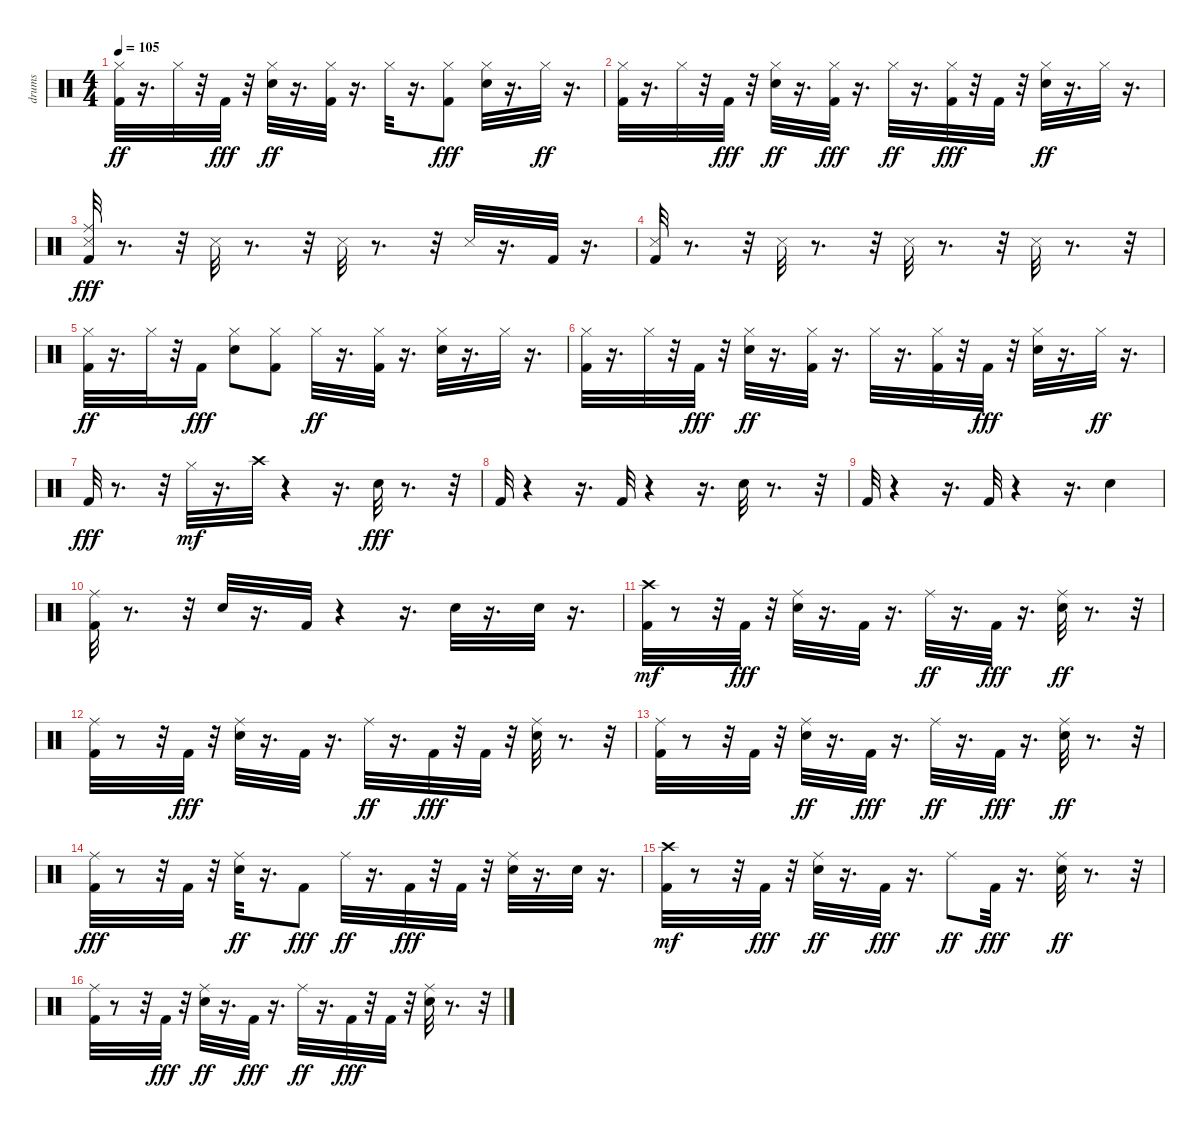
\track ("drums" "drums") {instrument percussion}
\staff {score}
\articulation defaults
\ts (4 4)
\tempo 105
\clef neutral
\ks c
("Kick (hit) 2" "Hi-Hat (closed)").32{dy ff} r.16{d} "Hi-Hat (closed)".32 r.32 "Kick (hit) 2".32{dy fff} r.32 ("Electric Snare (hit)" "Hi-Hat (closed)").32{dy ff} r.16{d} ("Kick (hit) 2" "Hi-Hat (closed)").32 r.16{d} "Hi-Hat (closed)".32 r.16{d} ("Hi-Hat (closed)" "Kick (hit) 2").8{dy fff} ("Hi-Hat (closed)" "Electric Snare (hit)").32 r.16{d} "Hi-Hat (closed)".32{dy ff} r.16{d} |
("Kick (hit) 2" "Hi-Hat (closed)").32 r.16{d} "Hi-Hat (closed)".32 r.32 "Kick (hit) 2".32{dy fff} r.32 ("Electric Snare (hit)" "Hi-Hat (closed)").32{dy ff} r.16{d} ("Hi-Hat (closed)" "Kick (hit) 2").32{dy fff} r.16{d} "Hi-Hat (closed)".32{dy ff} r.16{d} ("Hi-Hat (closed)" "Kick (hit) 2").32{dy fff} r.32 "Kick (hit) 2".32 r.32 ("Electric Snare (hit)" "Hi-Hat (closed)").32{dy ff} r.16{d} "Hi-Hat (closed)".32 r.16{d} |
("Kick (hit) 2" "Ride (middle)" "Snare (side stick) 3").32{dy fff} r.8{d} r.32 "Snare (side stick) 3".32 r.8{d} r.32 "Snare (side stick) 3".32 r.8{d} r.32 "Snare (side stick) 3".32 r.16{d} "Kick (hit) 2".32 r.16{d} |
("Kick (hit) 2" "Snare (side stick) 3").32 r.8{d} r.32 "Snare (side stick) 3".32 r.8{d} r.32 "Snare (side stick) 3".32 r.8{d} r.32 "Snare (side stick) 3".32 r.8{d} r.32 |
("Kick (hit) 2" "Hi-Hat (closed)").32{dy ff} r.16{d} "Hi-Hat (closed)".32 r.32 "Kick (hit) 2".16{dy fff} ("Hi-Hat (closed)" "Electric Snare (hit)").8 ("Hi-Hat (closed)" "Kick (hit) 2").8 "Hi-Hat (closed)".32{dy ff} r.16{d} ("Kick (hit) 2" "Hi-Hat (closed)").32 r.16{d} ("Electric Snare (hit)" "Hi-Hat (closed)").32 r.16{d} "Hi-Hat (closed)".32 r.16{d} |
("Kick (hit) 2" "Hi-Hat (closed)").32 r.16{d} "Hi-Hat (closed)".32 r.32 "Kick (hit) 2".32{dy fff} r.32 ("Electric Snare (hit)" "Hi-Hat (closed)").32{dy ff} r.16{d} ("Kick (hit) 2" "Hi-Hat (closed)").32 r.16{d} "Hi-Hat (closed)".32 r.16{d} ("Kick (hit) 2" "Hi-Hat (closed)").32 r.32 "Kick (hit) 2".32{dy fff} r.32 ("Hi-Hat (closed)" "Electric Snare (hit)").32 r.16{d} "Hi-Hat (closed)".32{dy ff} r.16{d} |
"Kick (hit) 2".32{dy fff} r.8{d} r.32 "Hi-Hat (closed)".32{dy mf} r.16{d} "Crash high (hit)".32 r.4 r.16{d} "Electric Snare (hit)".32{dy fff} r.8{d} r.32 |
"Kick (hit) 2".32 r.4 r.16{d} "Kick (hit) 2".32 r.4 r.16{d} "Electric Snare (hit)".32 r.8{d} r.32 |
"Kick (hit) 2".32 r.4 r.16{d} "Kick (hit) 2".32 r.4 r.16{d} "Electric Snare (hit)".4 |
("Ride (middle)" "Kick (hit) 2").32 r.8{d} r.32 "Electric Snare (hit)".32 r.16{d} "Kick (hit) 2".32 r.4 r.16{d} "Electric Snare (hit)".32 r.16{d} "Electric Snare (hit)".32 r.16{d} |
("Kick (hit) 2" "Crash high (hit)").32{dy mf} r.8 r.32 "Kick (hit) 2".32{dy fff} r.32 ("Ride (middle)" "Electric Snare (hit)").32 r.16{d} "Kick (hit) 2".32 r.16{d} "Ride (middle)".32{dy ff} r.16{d} "Kick (hit) 2".32{dy fff} r.16{d} ("Electric Snare (hit)" "Ride (middle)").32{dy ff} r.8{d} r.32 |
("Kick (hit) 2" "Ride (middle)").32 r.8 r.32 "Kick (hit) 2".32{dy fff} r.32 ("Ride (middle)" "Electric Snare (hit)").32 r.16{d} "Kick (hit) 2".32 r.16{d} "Ride (middle)".32{dy ff} r.16{d} "Kick (hit) 2".32{dy fff} r.32 "Kick (hit) 2".32 r.32 ("Ride (middle)" "Electric Snare (hit)").32 r.8{d} r.32 |
("Ride (middle)" "Kick (hit) 2").32 r.8 r.32 "Kick (hit) 2".32 r.32 ("Electric Snare (hit)" "Ride (middle)").32{dy ff} r.16{d} "Kick (hit) 2".32{dy fff} r.16{d} "Ride (middle)".32{dy ff} r.16{d} "Kick (hit) 2".32{dy fff} r.16{d} ("Electric Snare (hit)" "Ride (middle)").32{dy ff} r.8{d} r.32 |
("Ride (middle)" "Kick (hit) 2").32{dy fff} r.8 r.32 "Kick (hit) 2".32 r.32 ("Electric Snare (hit)" "Ride (middle)").32{dy ff} r.16{d} "Kick (hit) 2".8{dy fff} "Ride (middle)".32{dy ff} r.16{d} "Kick (hit) 2".32{dy fff} r.32 "Kick (hit) 2".32 r.32 ("Ride (middle)" "Electric Snare (hit)").32 r.16{d} "Electric Snare (hit)".32 r.16{d} |
("Kick (hit) 2" "Crash high (hit)").32{dy mf} r.8 r.32 "Kick (hit) 2".32{dy fff} r.32 ("Electric Snare (hit)" "Ride (middle)").32{dy ff} r.16{d} "Kick (hit) 2".32{dy fff} r.16{d} "Ride (middle)".8{dy ff} "Kick (hit) 2".32{dy fff} r.16{d} ("Electric Snare (hit)" "Ride (middle)").32{dy ff} r.8{d} r.32 |
("Kick (hit) 2" "Ride (middle)").32 r.8 r.32 "Kick (hit) 2".32{dy fff} r.32 ("Electric Snare (hit)" "Ride (middle)").32{dy ff} r.16{d} "Kick (hit) 2".32{dy fff} r.16{d} "Ride (middle)".32{dy ff} r.16{d} "Kick (hit) 2".32{dy fff} r.32 "Kick (hit) 2".32 r.32 ("Ride (middle)" "Electric Snare (hit)").32 r.8{d} r.32
